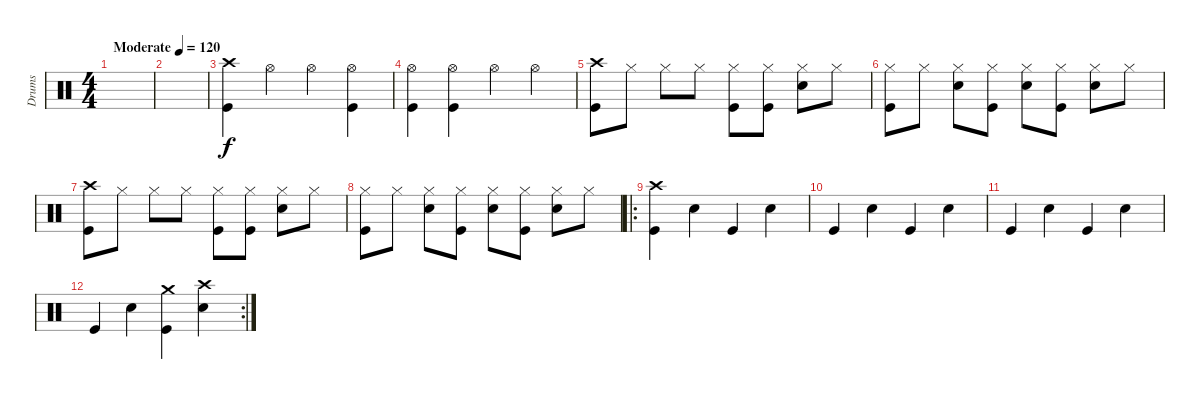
\track ("Drums" "Drums") {instrument percussion}
\staff {score}
\articulation defaults
\ts (4 4)
\tempo (120 "Moderate")
\clef neutral
\ks c
|
|
("Crash high (hit)" "Kick (hit)").4 "Hi-Hat (open)".4 "Hi-Hat (open)".4 ("Hi-Hat (open)" "Kick (hit)").4 |
("Hi-Hat (open)" "Kick (hit)").4 ("Hi-Hat (open)" "Kick (hit)").4 "Hi-Hat (open)".4 "Hi-Hat (open)".4 |
("Crash high (hit)" "Kick (hit)").8 "Hi-Hat (closed)".8 "Hi-Hat (closed)".8 "Hi-Hat (closed)".8 ("Hi-Hat (closed)" "Kick (hit)").8 ("Hi-Hat (closed)" "Kick (hit)").8 ("Hi-Hat (closed)" "Snare (hit) 2").8 "Hi-Hat (closed)".8 |
("Hi-Hat (closed)" "Kick (hit)").8 "Hi-Hat (closed)".8 ("Hi-Hat (closed)" "Snare (hit) 2").8 ("Hi-Hat (closed)" "Kick (hit)").8 ("Hi-Hat (closed)" "Snare (hit) 2").8 ("Hi-Hat (closed)" "Kick (hit)").8 ("Hi-Hat (closed)" "Snare (hit) 2").8 "Hi-Hat (closed)".8 |
("Crash high (hit)" "Kick (hit)").8 "Hi-Hat (closed)".8 "Hi-Hat (closed)".8 "Hi-Hat (closed)".8 ("Hi-Hat (closed)" "Kick (hit)").8 ("Hi-Hat (closed)" "Kick (hit)").8 ("Hi-Hat (closed)" "Snare (hit) 2").8 "Hi-Hat (closed)".8 |
("Hi-Hat (closed)" "Kick (hit)").8 "Hi-Hat (closed)".8 ("Hi-Hat (closed)" "Snare (hit) 2").8 ("Hi-Hat (closed)" "Kick (hit)").8 ("Hi-Hat (closed)" "Snare (hit) 2").8 ("Hi-Hat (closed)" "Kick (hit)").8 ("Hi-Hat (closed)" "Snare (hit) 2").8 "Hi-Hat (closed)".8 |
\ro
("Crash high (hit)" "Kick (hit)").4 "Snare (hit) 2".4 "Kick (hit)".4 "Snare (hit) 2".4 |
"Kick (hit)".4 "Snare (hit) 2".4 "Kick (hit)".4 "Snare (hit) 2".4 |
"Kick (hit)".4 "Snare (hit) 2".4 "Kick (hit)".4 "Snare (hit) 2".4 |
\rc 2 "Kick (hit)".4 "Snare (hit) 2".4
("Crash medium (hit)" "Kick (hit)").4 ("Crash high (hit)" "Snare (hit) 2").4
